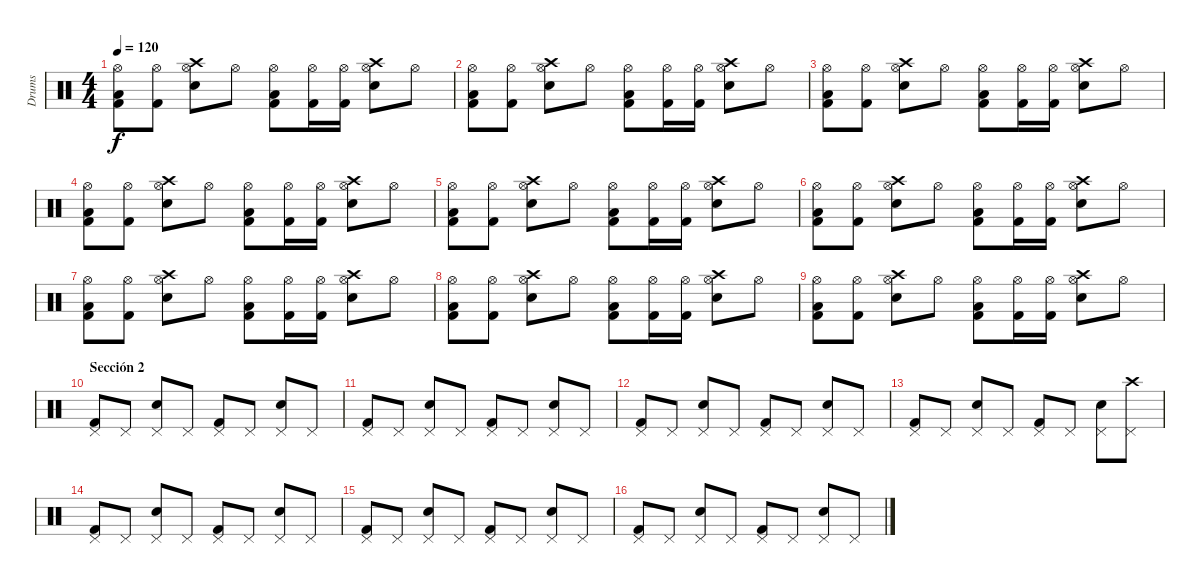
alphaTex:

\track ("Drums" "Drums") {instrument percussion}
\staff {score}
\articulation defaults
\ts (4 4)
\tempo 120
\clef neutral
\ks c
("Hi-Hat (open)" "Low Tom (hit)" "Kick (hit) 2").8{dy f} ("Hi-Hat (open)" "Kick (hit) 2").8 ("Hi-Hat (open)" "Crash high (hit)" "Snare (hit) 2").8 "Hi-Hat (open)".8 ("Hi-Hat (open)" "Low Tom (hit)" "Kick (hit) 2").8 ("Hi-Hat (open)" "Kick (hit) 2").16 ("Hi-Hat (open)" "Kick (hit) 2").16 ("Hi-Hat (open)" "Crash high (hit)" "Snare (hit) 2").8 "Hi-Hat (open)".8 |
("Hi-Hat (open)" "Low Tom (hit)" "Kick (hit) 2").8 ("Hi-Hat (open)" "Kick (hit) 2").8 ("Hi-Hat (open)" "Crash high (hit)" "Snare (hit) 2").8 "Hi-Hat (open)".8 ("Hi-Hat (open)" "Low Tom (hit)" "Kick (hit) 2").8 ("Hi-Hat (open)" "Kick (hit) 2").16 ("Hi-Hat (open)" "Kick (hit) 2").16 ("Hi-Hat (open)" "Crash high (hit)" "Snare (hit) 2").8 "Hi-Hat (open)".8 |
("Hi-Hat (open)" "Low Tom (hit)" "Kick (hit) 2").8 ("Hi-Hat (open)" "Kick (hit) 2").8 ("Hi-Hat (open)" "Crash high (hit)" "Snare (hit) 2").8 "Hi-Hat (open)".8 ("Hi-Hat (open)" "Low Tom (hit)" "Kick (hit) 2").8 ("Hi-Hat (open)" "Kick (hit) 2").16 ("Hi-Hat (open)" "Kick (hit) 2").16 ("Hi-Hat (open)" "Crash high (hit)" "Snare (hit) 2").8 "Hi-Hat (open)".8 |
("Hi-Hat (open)" "Low Tom (hit)" "Kick (hit) 2").8 ("Hi-Hat (open)" "Kick (hit) 2").8 ("Hi-Hat (open)" "Crash high (hit)" "Snare (hit) 2").8 "Hi-Hat (open)".8 ("Hi-Hat (open)" "Low Tom (hit)" "Kick (hit) 2").8 ("Hi-Hat (open)" "Kick (hit) 2").16 ("Hi-Hat (open)" "Kick (hit) 2").16 ("Hi-Hat (open)" "Crash high (hit)" "Snare (hit) 2").8 "Hi-Hat (open)".8 |
("Hi-Hat (open)" "Low Tom (hit)" "Kick (hit) 2").8 ("Hi-Hat (open)" "Kick (hit) 2").8 ("Hi-Hat (open)" "Crash high (hit)" "Snare (hit) 2").8 "Hi-Hat (open)".8 ("Hi-Hat (open)" "Low Tom (hit)" "Kick (hit) 2").8 ("Hi-Hat (open)" "Kick (hit) 2").16 ("Hi-Hat (open)" "Kick (hit) 2").16 ("Hi-Hat (open)" "Crash high (hit)" "Snare (hit) 2").8 "Hi-Hat (open)".8 |
("Hi-Hat (open)" "Low Tom (hit)" "Kick (hit) 2").8 ("Hi-Hat (open)" "Kick (hit) 2").8 ("Hi-Hat (open)" "Crash high (hit)" "Snare (hit) 2").8 "Hi-Hat (open)".8 ("Hi-Hat (open)" "Low Tom (hit)" "Kick (hit) 2").8 ("Hi-Hat (open)" "Kick (hit) 2").16 ("Hi-Hat (open)" "Kick (hit) 2").16 ("Hi-Hat (open)" "Crash high (hit)" "Snare (hit) 2").8 "Hi-Hat (open)".8 |
("Hi-Hat (open)" "Low Tom (hit)" "Kick (hit) 2").8 ("Hi-Hat (open)" "Kick (hit) 2").8 ("Hi-Hat (open)" "Crash high (hit)" "Snare (hit) 2").8 "Hi-Hat (open)".8 ("Hi-Hat (open)" "Low Tom (hit)" "Kick (hit) 2").8 ("Hi-Hat (open)" "Kick (hit) 2").16 ("Hi-Hat (open)" "Kick (hit) 2").16 ("Hi-Hat (open)" "Crash high (hit)" "Snare (hit) 2").8 "Hi-Hat (open)".8 |
("Hi-Hat (open)" "Low Tom (hit)" "Kick (hit) 2").8 ("Hi-Hat (open)" "Kick (hit) 2").8 ("Hi-Hat (open)" "Crash high (hit)" "Snare (hit) 2").8 "Hi-Hat (open)".8 ("Hi-Hat (open)" "Low Tom (hit)" "Kick (hit) 2").8 ("Hi-Hat (open)" "Kick (hit) 2").16 ("Hi-Hat (open)" "Kick (hit) 2").16 ("Hi-Hat (open)" "Crash high (hit)" "Snare (hit) 2").8 "Hi-Hat (open)".8 |
("Hi-Hat (open)" "Low Tom (hit)" "Kick (hit) 2").8 ("Hi-Hat (open)" "Kick (hit) 2").8 ("Hi-Hat (open)" "Crash high (hit)" "Snare (hit) 2").8 "Hi-Hat (open)".8 ("Hi-Hat (open)" "Low Tom (hit)" "Kick (hit) 2").8 ("Hi-Hat (open)" "Kick (hit) 2").16 ("Hi-Hat (open)" "Kick (hit) 2").16 ("Hi-Hat (open)" "Crash high (hit)" "Snare (hit) 2").8 "Hi-Hat (open)".8 |
\section ("" "Sección 2")
("Pedal Hi-Hat (hit)" "Kick (hit) 2").8 "Pedal Hi-Hat (hit)".8 ("Pedal Hi-Hat (hit)" "Snare (hit) 2").8 "Pedal Hi-Hat (hit)".8 ("Pedal Hi-Hat (hit)" "Kick (hit) 2").8 "Pedal Hi-Hat (hit)".8 ("Pedal Hi-Hat (hit)" "Snare (hit) 2").8 "Pedal Hi-Hat (hit)".8 |
("Pedal Hi-Hat (hit)" "Kick (hit) 2").8 "Pedal Hi-Hat (hit)".8 ("Pedal Hi-Hat (hit)" "Snare (hit) 2").8 "Pedal Hi-Hat (hit)".8 ("Pedal Hi-Hat (hit)" "Kick (hit) 2").8 "Pedal Hi-Hat (hit)".8 ("Pedal Hi-Hat (hit)" "Snare (hit) 2").8 "Pedal Hi-Hat (hit)".8 |
("Pedal Hi-Hat (hit)" "Kick (hit) 2").8 "Pedal Hi-Hat (hit)".8 ("Pedal Hi-Hat (hit)" "Snare (hit) 2").8 "Pedal Hi-Hat (hit)".8 ("Pedal Hi-Hat (hit)" "Kick (hit) 2").8 "Pedal Hi-Hat (hit)".8 ("Pedal Hi-Hat (hit)" "Snare (hit) 2").8 "Pedal Hi-Hat (hit)".8 |
("Pedal Hi-Hat (hit)" "Kick (hit) 2").8 "Pedal Hi-Hat (hit)".8 ("Pedal Hi-Hat (hit)" "Snare (hit) 2").8 "Pedal Hi-Hat (hit)".8 ("Pedal Hi-Hat (hit)" "Kick (hit) 2").8 "Pedal Hi-Hat (hit)".8 ("Pedal Hi-Hat (hit)" "Snare (hit) 2").8 ("Pedal Hi-Hat (hit)" "Crash high (hit)").8 |
("Pedal Hi-Hat (hit)" "Kick (hit) 2").8 "Pedal Hi-Hat (hit)".8 ("Pedal Hi-Hat (hit)" "Snare (hit) 2").8 "Pedal Hi-Hat (hit)".8 ("Pedal Hi-Hat (hit)" "Kick (hit) 2").8 "Pedal Hi-Hat (hit)".8 ("Pedal Hi-Hat (hit)" "Snare (hit) 2").8 "Pedal Hi-Hat (hit)".8 |
("Pedal Hi-Hat (hit)" "Kick (hit) 2").8 "Pedal Hi-Hat (hit)".8 ("Pedal Hi-Hat (hit)" "Snare (hit) 2").8 "Pedal Hi-Hat (hit)".8 ("Pedal Hi-Hat (hit)" "Kick (hit) 2").8 "Pedal Hi-Hat (hit)".8 ("Pedal Hi-Hat (hit)" "Snare (hit) 2").8 "Pedal Hi-Hat (hit)".8 |
("Pedal Hi-Hat (hit)" "Kick (hit) 2").8 "Pedal Hi-Hat (hit)".8 ("Pedal Hi-Hat (hit)" "Snare (hit) 2").8 "Pedal Hi-Hat (hit)".8 ("Pedal Hi-Hat (hit)" "Kick (hit) 2").8 "Pedal Hi-Hat (hit)".8 ("Pedal Hi-Hat (hit)" "Snare (hit) 2").8 "Pedal Hi-Hat (hit)".8
